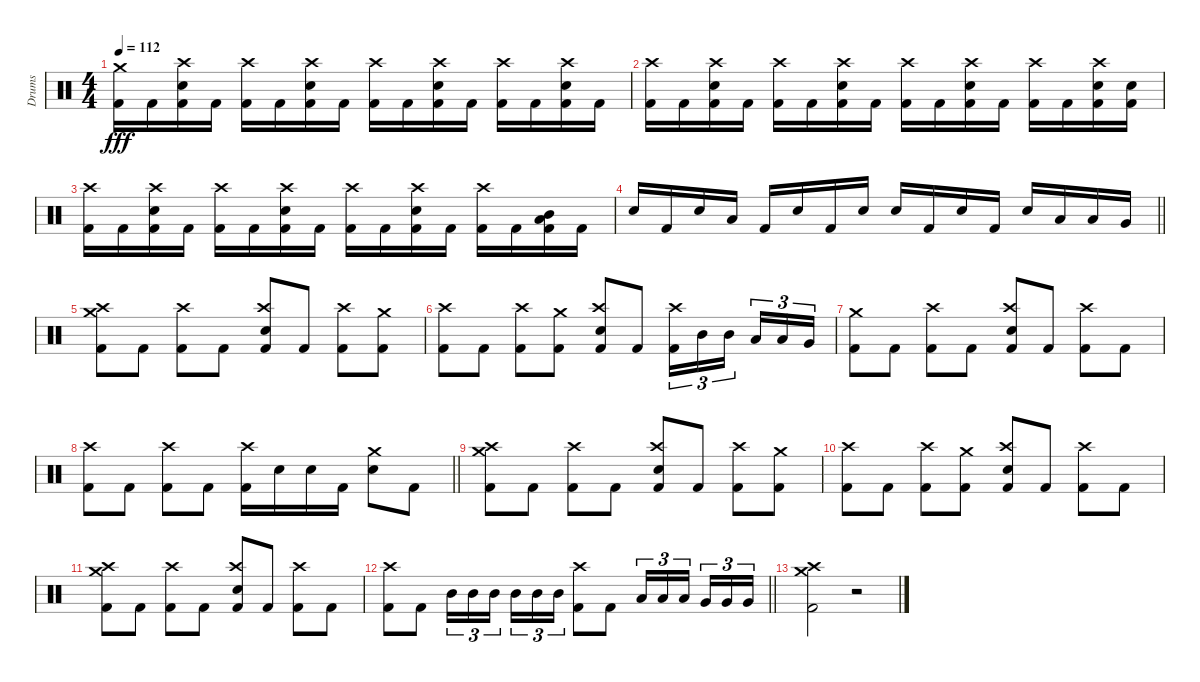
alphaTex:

\track ("Drums" "Drums") {instrument percussion}
\staff {score}
\articulation defaults
\ts (4 4)
\tempo 112
\clef neutral
\ks c
("Crash medium (hit)" "Kick (hit) 2").16{dy fff} "Kick (hit) 2".16 ("Crash high (hit)" "Electric Snare (hit)" "Kick (hit) 2").16 "Kick (hit) 2".16 ("Crash high (hit)" "Kick (hit) 2").16 "Kick (hit) 2".16 ("Crash high (hit)" "Electric Snare (hit)" "Kick (hit) 2").16 "Kick (hit) 2".16 ("Crash high (hit)" "Kick (hit) 2").16 "Kick (hit) 2".16 ("Crash high (hit)" "Electric Snare (hit)" "Kick (hit) 2").16 "Kick (hit) 2".16 ("Crash high (hit)" "Kick (hit) 2").16 "Kick (hit) 2".16 ("Crash high (hit)" "Electric Snare (hit)" "Kick (hit) 2").16 "Kick (hit) 2".16 |
("Crash high (hit)" "Kick (hit) 2").16 "Kick (hit) 2".16 ("Crash high (hit)" "Electric Snare (hit)" "Kick (hit) 2").16 "Kick (hit) 2".16 ("Crash high (hit)" "Kick (hit) 2").16 "Kick (hit) 2".16 ("Crash high (hit)" "Electric Snare (hit)" "Kick (hit) 2").16 "Kick (hit) 2".16 ("Crash high (hit)" "Kick (hit) 2").16 "Kick (hit) 2".16 ("Crash high (hit)" "Electric Snare (hit)" "Kick (hit) 2").16 "Kick (hit) 2".16 ("Crash high (hit)" "Kick (hit) 2").16 "Kick (hit) 2".16 ("Crash high (hit)" "Electric Snare (hit)" "Kick (hit) 2").16 ("Electric Snare (hit)" "Kick (hit) 2").16 |
("Crash high (hit)" "Kick (hit) 2").16 "Kick (hit) 2".16 ("Crash high (hit)" "Electric Snare (hit)" "Kick (hit) 2").16 "Kick (hit) 2".16 ("Crash high (hit)" "Kick (hit) 2").16 "Kick (hit) 2".16 ("Crash high (hit)" "Electric Snare (hit)" "Kick (hit) 2").16 "Kick (hit) 2".16 ("Crash high (hit)" "Kick (hit) 2").16 "Kick (hit) 2".16 ("Crash high (hit)" "Electric Snare (hit)" "Kick (hit) 2").16 "Kick (hit) 2".16 ("Crash high (hit)" "Kick (hit) 2").16 "Kick (hit) 2".16 ("Mid Tom (hit)" "Low Tom (hit)" "Kick (hit) 2").16 "Kick (hit) 2".16 |
\barLineRight lightlight "Electric Snare (hit)".16 "Kick (hit) 2".16 "Electric Snare (hit)".16 "Low Tom (hit)".16 "Kick (hit) 2".16 "Electric Snare (hit)".16 "Kick (hit) 2".16 "Electric Snare (hit)".16 "Electric Snare (hit)".16 "Kick (hit) 2".16 "Electric Snare (hit)".16 "Kick (hit) 2".16 "Electric Snare (hit)".16 "Low Tom (hit)".16 "Low Tom (hit)".16 "Very Low Tom (hit)".16
|
("Crash high (hit)" "Crash medium (hit)" "Kick (hit) 2").8 "Kick (hit) 2".8 ("Crash high (hit)" "Kick (hit) 2").8 "Kick (hit) 2".8 ("Crash high (hit)" "Electric Snare (hit)" "Kick (hit) 2").8 "Kick (hit) 2".8 ("Crash high (hit)" "Kick (hit) 2").8 ("Crash medium (hit)" "Kick (hit) 2").8 |
("Crash high (hit)" "Kick (hit) 2").8 "Kick (hit) 2".8 ("Crash high (hit)" "Kick (hit) 2").8 ("Crash medium (hit)" "Kick (hit) 2").8 ("Crash high (hit)" "Electric Snare (hit)" "Kick (hit) 2").8 "Kick (hit) 2".8 ("Crash high (hit)" "Kick (hit) 2").16{tu (3 2)} "Mid Tom (hit)".16{tu (3 2)} "Mid Tom (hit)".16{tu (3 2) beam splitsecondary} "Low Tom (hit)".16{tu (3 2)} "Low Tom (hit)".16{tu (3 2)} "Very Low Tom (hit)".16{tu (3 2)} |
("Crash medium (hit)" "Kick (hit) 2").8 "Kick (hit) 2".8 ("Crash high (hit)" "Kick (hit) 2").8 "Kick (hit) 2".8 ("Crash high (hit)" "Electric Snare (hit)" "Kick (hit) 2").8 "Kick (hit) 2".8 ("Crash high (hit)" "Kick (hit) 2").8 "Kick (hit) 2".8 |
\barLineRight lightlight
("Crash high (hit)" "Kick (hit) 2").8 "Kick (hit) 2".8 ("Crash high (hit)" "Kick (hit) 2").8 "Kick (hit) 2".8 ("Crash high (hit)" "Kick (hit) 2").16 "Electric Snare (hit)".16 "Electric Snare (hit)".16 "Kick (hit) 2".16 ("Crash medium (hit)" "Electric Snare (hit)").8 "Kick (hit) 2".8 |
("Crash high (hit)" "Crash medium (hit)" "Kick (hit) 2").8 "Kick (hit) 2".8 ("Crash high (hit)" "Kick (hit) 2").8 "Kick (hit) 2".8 ("Crash high (hit)" "Electric Snare (hit)" "Kick (hit) 2").8 "Kick (hit) 2".8 ("Crash high (hit)" "Kick (hit) 2").8 ("Crash medium (hit)" "Kick (hit) 2").8 |
("Crash high (hit)" "Kick (hit) 2").8 "Kick (hit) 2".8 ("Crash high (hit)" "Kick (hit) 2").8 ("Crash medium (hit)" "Kick (hit) 2").8 ("Crash high (hit)" "Electric Snare (hit)" "Kick (hit) 2").8 "Kick (hit) 2".8 ("Crash high (hit)" "Kick (hit) 2").8 "Kick (hit) 2".8 |
("Crash high (hit)" "Crash medium (hit)" "Kick (hit) 2").8 "Kick (hit) 2".8 ("Crash high (hit)" "Kick (hit) 2").8 "Kick (hit) 2".8 ("Crash high (hit)" "Electric Snare (hit)" "Kick (hit) 2").8 "Kick (hit) 2".8 ("Crash high (hit)" "Kick (hit) 2").8 "Kick (hit) 2".8 |
\barLineRight lightlight
("Crash high (hit)" "Kick (hit) 2").8 "Kick (hit) 2".8 "Mid Tom (hit)".16{tu (3 2)} "Mid Tom (hit)".16{tu (3 2)} "Mid Tom (hit)".16{tu (3 2) beam splitsecondary} "Mid Tom (hit)".16{tu (3 2)} "Mid Tom (hit)".16{tu (3 2)} "Mid Tom (hit)".16{tu (3 2)} ("Crash high (hit)" "Kick (hit) 2").8 "Kick (hit) 2".8 "Low Tom (hit)".16{tu (3 2)} "Low Tom (hit)".16{tu (3 2)} "Low Tom (hit)".16{tu (3 2) beam splitsecondary} "Very Low Tom (hit)".16{tu (3 2)} "Very Low Tom (hit)".16{tu (3 2)} "Very Low Tom (hit)".16{tu (3 2)} |
("Crash high (hit)" "Crash medium (hit)" "Kick (hit) 2").2 r.2
